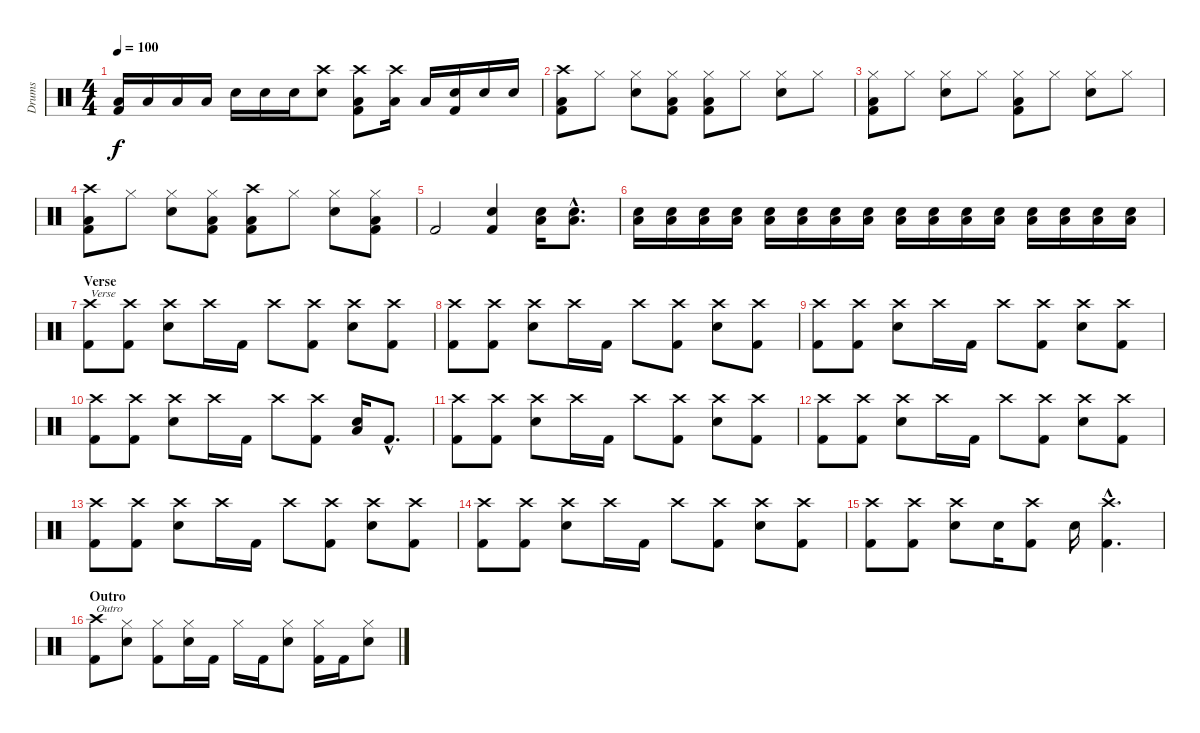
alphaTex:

\track ("Drums" "Drums") {instrument percussion}
\staff {score}
\articulation defaults
\ts (4 4)
\tempo 100
\clef neutral
\ks c
("Low Floor Tom (hit)" "Kick (hit) 2").16{dy f} "Low Floor Tom (hit)".16 "Low Floor Tom (hit)".16 "Low Floor Tom (hit)".16 "Electric Snare (hit)".16 "Electric Snare (hit)".16 "Electric Snare (hit)".16 ("Crash high (hit)" "Electric Snare (hit)").8 ("Crash high (hit)" "Low Floor Tom (hit)" "Kick (hit) 2").8 ("Crash high (hit)" "Low Floor Tom (hit)").16 "Low Floor Tom (hit)".16 ("Electric Snare (hit)" "Kick (hit) 2").16 "Electric Snare (hit)".16 "Electric Snare (hit)".16 |
("Crash high (hit)" "Low Floor Tom (hit)" "Kick (hit) 2").8 "Hi-Hat (closed)".8 ("Hi-Hat (closed)" "Electric Snare (hit)").8 ("Hi-Hat (closed)" "Low Floor Tom (hit)" "Kick (hit) 2").8 ("Hi-Hat (closed)" "Low Floor Tom (hit)" "Kick (hit) 2").8 "Hi-Hat (closed)".8 ("Hi-Hat (closed)" "Electric Snare (hit)").8 "Hi-Hat (closed)".8 |
("Hi-Hat (closed)" "Low Floor Tom (hit)" "Kick (hit) 2").8 "Hi-Hat (closed)".8 ("Hi-Hat (closed)" "Electric Snare (hit)").8 "Hi-Hat (closed)".8 ("Hi-Hat (closed)" "Low Floor Tom (hit)" "Kick (hit) 2").8 "Hi-Hat (closed)".8 ("Hi-Hat (closed)" "Electric Snare (hit)").8 "Hi-Hat (closed)".8 |
("Crash high (hit)" "Low Floor Tom (hit)" "Kick (hit) 2").8 "Hi-Hat (closed)".8 ("Hi-Hat (closed)" "Electric Snare (hit)").8 ("Hi-Hat (closed)" "Low Floor Tom (hit)" "Kick (hit) 2").8 ("Crash high (hit)" "Low Floor Tom (hit)" "Kick (hit) 2").8 "Hi-Hat (closed)".8 ("Hi-Hat (closed)" "Electric Snare (hit)").8 ("Hi-Hat (closed)" "Low Floor Tom (hit)" "Kick (hit) 2").8 |
"Kick (hit) 2".2 ("Electric Snare (hit)" "Kick (hit) 2").4 ("Electric Snare (hit)" "Low Floor Tom (hit)").16 ("Electric Snare (hit)"{hac} "Low Floor Tom (hit)"{hac}).8{d} |
("Electric Snare (hit)" "Low Floor Tom (hit)").16 ("Electric Snare (hit)" "Low Floor Tom (hit)").16 ("Electric Snare (hit)" "Low Floor Tom (hit)").16 ("Electric Snare (hit)" "Low Floor Tom (hit)").16 ("Electric Snare (hit)" "Low Floor Tom (hit)").16 ("Electric Snare (hit)" "Low Floor Tom (hit)").16 ("Electric Snare (hit)" "Low Floor Tom (hit)").16 ("Electric Snare (hit)" "Low Floor Tom (hit)").16 ("Electric Snare (hit)" "Low Floor Tom (hit)").16 ("Electric Snare (hit)" "Low Floor Tom (hit)").16 ("Electric Snare (hit)" "Low Floor Tom (hit)").16 ("Electric Snare (hit)" "Low Floor Tom (hit)").16 ("Electric Snare (hit)" "Low Floor Tom (hit)").16 ("Electric Snare (hit)" "Low Floor Tom (hit)").16 ("Electric Snare (hit)" "Low Floor Tom (hit)").16 ("Electric Snare (hit)" "Low Floor Tom (hit)").16 |
\section ("" "Verse")
("Crash high (hit)" "Kick (hit) 2").8{txt "Verse"} ("Crash high (hit)" "Kick (hit) 2").8 ("Crash high (hit)" "Electric Snare (hit)").8 "Crash high (hit)".16 "Kick (hit) 2".16 "Crash high (hit)".8 ("Crash high (hit)" "Kick (hit) 2").8 ("Crash high (hit)" "Electric Snare (hit)").8 ("Crash high (hit)" "Kick (hit) 2").8 |
("Crash high (hit)" "Kick (hit) 2").8 ("Crash high (hit)" "Kick (hit) 2").8 ("Crash high (hit)" "Electric Snare (hit)").8 "Crash high (hit)".16 "Kick (hit) 2".16 "Crash high (hit)".8 ("Crash high (hit)" "Kick (hit) 2").8 ("Crash high (hit)" "Electric Snare (hit)").8 ("Crash high (hit)" "Kick (hit) 2").8 |
("Crash high (hit)" "Kick (hit) 2").8 ("Crash high (hit)" "Kick (hit) 2").8 ("Crash high (hit)" "Electric Snare (hit)").8 "Crash high (hit)".16 "Kick (hit) 2".16 "Crash high (hit)".8 ("Crash high (hit)" "Kick (hit) 2").8 ("Crash high (hit)" "Electric Snare (hit)").8 ("Crash high (hit)" "Kick (hit) 2").8 |
("Crash high (hit)" "Kick (hit) 2").8 ("Crash high (hit)" "Kick (hit) 2").8 ("Crash high (hit)" "Electric Snare (hit)").8 "Crash high (hit)".16 "Kick (hit) 2".16 "Crash high (hit)".8 ("Crash high (hit)" "Kick (hit) 2").8 ("Electric Snare (hit)" "Low Floor Tom (hit)").16 "Kick (hit) 2"{hac}.8{d} |
("Crash high (hit)" "Kick (hit) 2").8 ("Crash high (hit)" "Kick (hit) 2").8 ("Crash high (hit)" "Electric Snare (hit)").8 "Crash high (hit)".16 "Kick (hit) 2".16 "Crash high (hit)".8 ("Crash high (hit)" "Kick (hit) 2").8 ("Crash high (hit)" "Electric Snare (hit)").8 ("Crash high (hit)" "Kick (hit) 2").8 |
("Crash high (hit)" "Kick (hit) 2").8 ("Crash high (hit)" "Kick (hit) 2").8 ("Crash high (hit)" "Electric Snare (hit)").8 "Crash high (hit)".16 "Kick (hit) 2".16 "Crash high (hit)".8 ("Crash high (hit)" "Kick (hit) 2").8 ("Crash high (hit)" "Electric Snare (hit)").8 ("Crash high (hit)" "Kick (hit) 2").8 |
("Crash high (hit)" "Kick (hit) 2").8 ("Crash high (hit)" "Kick (hit) 2").8 ("Crash high (hit)" "Electric Snare (hit)").8 "Crash high (hit)".16 "Kick (hit) 2".16 "Crash high (hit)".8 ("Crash high (hit)" "Kick (hit) 2").8 ("Crash high (hit)" "Electric Snare (hit)").8 ("Crash high (hit)" "Kick (hit) 2").8 |
("Crash high (hit)" "Kick (hit) 2").8 ("Crash high (hit)" "Kick (hit) 2").8 ("Crash high (hit)" "Electric Snare (hit)").8 "Crash high (hit)".16 "Kick (hit) 2".16 "Crash high (hit)".8 ("Crash high (hit)" "Kick (hit) 2").8 ("Crash high (hit)" "Electric Snare (hit)").8 ("Crash high (hit)" "Kick (hit) 2").8 |
("Crash high (hit)" "Kick (hit) 2").8 ("Crash high (hit)" "Kick (hit) 2").8 ("Crash high (hit)" "Electric Snare (hit)").8 "Electric Snare (hit)".16 ("Crash high (hit)" "Kick (hit) 2").8 "Electric Snare (hit)".16 ("Crash high (hit)"{hac} "Kick (hit) 2"{hac}).4{d} |
\section ("" "Outro")
("Crash high (hit)" "Kick (hit) 2").8{txt "Outro"} ("Hi-Hat (closed)" "Electric Snare (hit)").8 ("Hi-Hat (closed)" "Kick (hit) 2").8 ("Hi-Hat (closed)" "Electric Snare (hit)").16 "Kick (hit) 2".16 "Hi-Hat (closed)".16 "Kick (hit) 2".16 ("Hi-Hat (closed)" "Electric Snare (hit)").8 ("Hi-Hat (closed)" "Kick (hit) 2").16 "Kick (hit) 2".16 ("Hi-Hat (closed)" "Electric Snare (hit)").8
